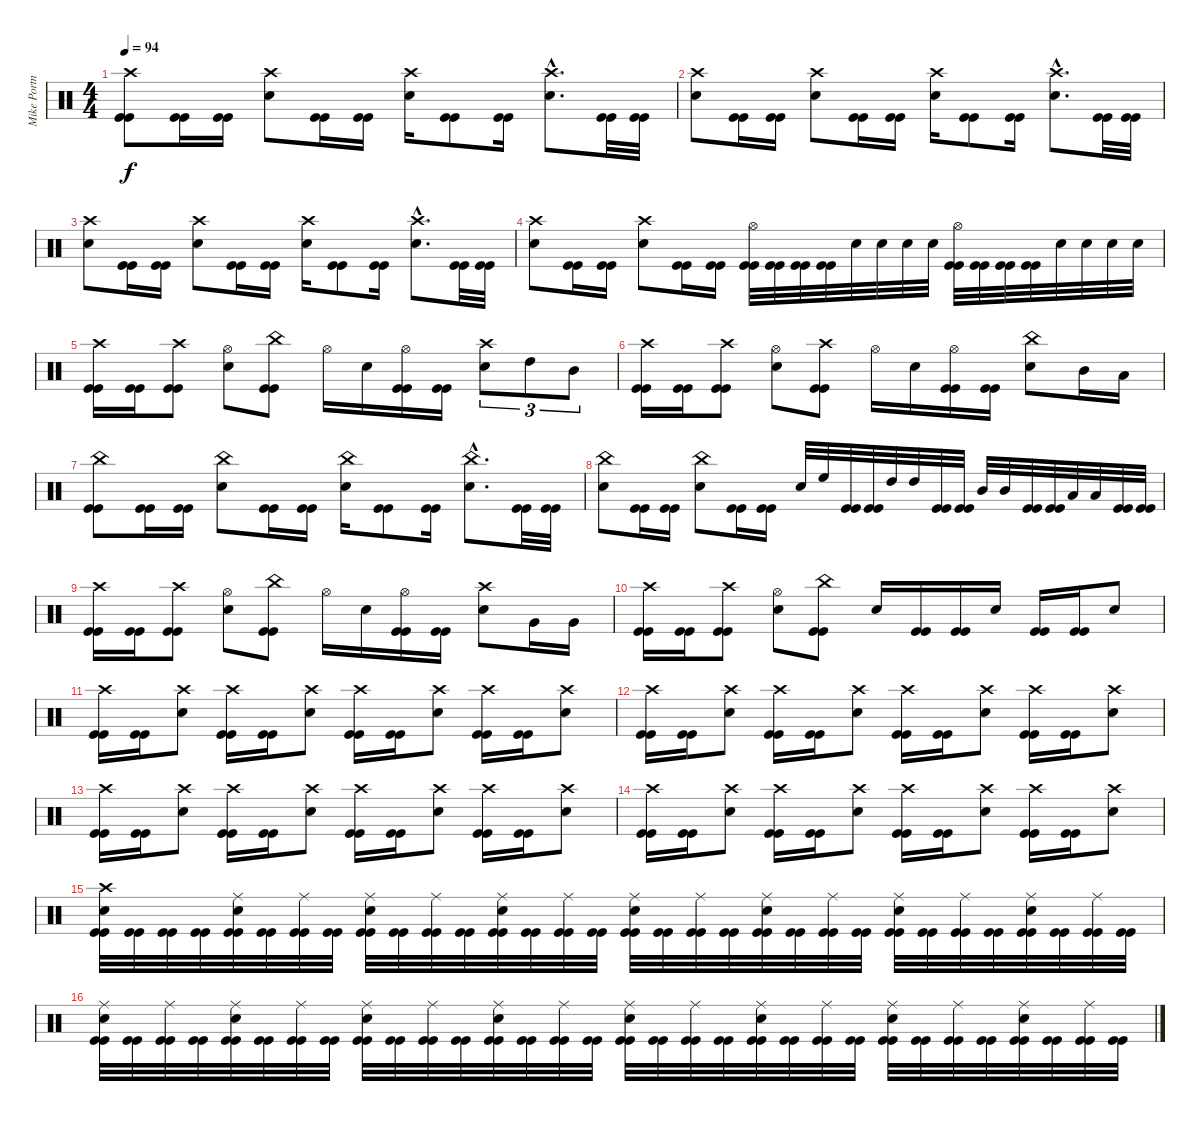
\track ("Mike Portnoy - Drum" "Mike Portn") {instrument percussion}
\staff {score}
\articulation defaults
\ts (4 4)
\tempo 94
\clef neutral
\ks c
("Crash high (hit)" "Kick (hit)" "Kick (hit)").8{dy f} ("Kick (hit)" "Kick (hit)").16 ("Kick (hit)" "Kick (hit)").16 ("Crash high (hit)" "Snare (hit) 2").8 ("Kick (hit)" "Kick (hit)").16 ("Kick (hit)" "Kick (hit)").16 ("Crash high (hit)" "Snare (hit) 2").16 ("Kick (hit)" "Kick (hit)").8 ("Kick (hit)" "Kick (hit)").16 ("Crash high (hit)"{hac} "Snare (hit) 2"{hac}).8{d} ("Kick (hit)" "Kick (hit)").32 ("Kick (hit)" "Kick (hit)").32 |
("Crash high (hit)" "Snare (hit) 2").8 ("Kick (hit)" "Kick (hit)").16 ("Kick (hit)" "Kick (hit)").16 ("Crash high (hit)" "Snare (hit) 2").8 ("Kick (hit)" "Kick (hit)").16 ("Kick (hit)" "Kick (hit)").16 ("Crash high (hit)" "Snare (hit) 2").16 ("Kick (hit)" "Kick (hit)").8 ("Kick (hit)" "Kick (hit)").16 ("Crash high (hit)"{hac} "Snare (hit) 2"{hac}).8{d} ("Kick (hit)" "Kick (hit)").32 ("Kick (hit)" "Kick (hit)").32 |
("Crash high (hit)" "Snare (hit) 2").8 ("Kick (hit)" "Kick (hit)").16 ("Kick (hit)" "Kick (hit)").16 ("Crash high (hit)" "Snare (hit) 2").8 ("Kick (hit)" "Kick (hit)").16 ("Kick (hit)" "Kick (hit)").16 ("Crash high (hit)" "Snare (hit) 2").16 ("Kick (hit)" "Kick (hit)").8 ("Kick (hit)" "Kick (hit)").16 ("Crash high (hit)"{hac} "Snare (hit) 2"{hac}).8{d} ("Kick (hit)" "Kick (hit)").32 ("Kick (hit)" "Kick (hit)").32 |
("Crash high (hit)" "Snare (hit) 2").8 ("Kick (hit)" "Kick (hit)").16 ("Kick (hit)" "Kick (hit)").16 ("Crash high (hit)" "Snare (hit) 2").8 ("Kick (hit)" "Kick (hit)").16 ("Kick (hit)" "Kick (hit)").16 ("Hi-Hat (open)" "Kick (hit)" "Kick (hit)").32 ("Kick (hit)" "Kick (hit)").32 ("Kick (hit)" "Kick (hit)").32 ("Kick (hit)" "Kick (hit)").32 "Snare (hit) 2".32 "Snare (hit) 2".32 "Snare (hit) 2".32 "Snare (hit) 2".32 ("Hi-Hat (open)" "Kick (hit)" "Kick (hit)").32 ("Kick (hit)" "Kick (hit)").32 ("Kick (hit)" "Kick (hit)").32 ("Kick (hit)" "Kick (hit)").32 "Snare (hit) 2".32 "Snare (hit) 2".32 "Snare (hit) 2".32 "Snare (hit) 2".32 |
("Crash high (hit)" "Kick (hit)" "Kick (hit)").16 ("Kick (hit)" "Kick (hit)").16 ("Crash high (hit)" "Kick (hit)" "Kick (hit)").8 ("Hi-Hat (open)" "Snare (hit) 2").8 ("China (hit)" "Kick (hit)" "Kick (hit)").8 "Hi-Hat (open)".16 "Snare (hit) 2".16 ("Hi-Hat (open)" "Kick (hit)" "Kick (hit)").16 ("Kick (hit)" "Kick (hit)").16 ("Crash high (hit)" "Snare (hit) 2").8{tu (3 2)} "High Tom (hit)".8{tu (3 2)} "Mid Tom (hit)".8{tu (3 2)} |
("Crash high (hit)" "Kick (hit)" "Kick (hit)").16 ("Kick (hit)" "Kick (hit)").16 ("Crash high (hit)" "Kick (hit)" "Kick (hit)").8 ("Hi-Hat (open)" "Snare (hit) 2").8 ("Crash high (hit)" "Kick (hit)" "Kick (hit)").8 "Hi-Hat (open)".16 "Snare (hit) 2".16 ("Hi-Hat (open)" "Kick (hit)" "Kick (hit)").16 ("Kick (hit)" "Kick (hit)").16 ("China (hit)" "Snare (hit) 2").8 "Mid Tom (hit)".16 "Low Tom (hit)".16 |
("China (hit)" "Kick (hit)" "Kick (hit)").8 ("Kick (hit)" "Kick (hit)").16 ("Kick (hit)" "Kick (hit)").16 ("China (hit)" "Snare (hit) 2").8 ("Kick (hit)" "Kick (hit)").16 ("Kick (hit)" "Kick (hit)").16 ("China (hit)" "Snare (hit) 2").16 ("Kick (hit)" "Kick (hit)").8 ("Kick (hit)" "Kick (hit)").16 ("China (hit)"{hac} "Snare (hit) 2"{hac}).8{d} ("Kick (hit)" "Kick (hit)").32 ("Kick (hit)" "Kick (hit)").32 |
("China (hit)" "Snare (hit) 2").8 ("Kick (hit)" "Kick (hit)").16 ("Kick (hit)" "Kick (hit)").16 ("China (hit)" "Snare (hit) 2").8 ("Kick (hit)" "Kick (hit)").16 ("Kick (hit)" "Kick (hit)").16 "Snare (hit) 2".32 "High Floor Tom (hit)".32 ("Kick (hit)" "Kick (hit)").32 ("Kick (hit)" "Kick (hit)").32 "High Tom (hit)".32 "High Tom (hit)".32 ("Kick (hit)" "Kick (hit)").32 ("Kick (hit)" "Kick (hit)").32 "Mid Tom (hit)".32 "Mid Tom (hit)".32 ("Kick (hit)" "Kick (hit)").32 ("Kick (hit)" "Kick (hit)").32 "Low Tom (hit)".32 "Low Tom (hit)".32 ("Kick (hit)" "Kick (hit)").32 ("Kick (hit)" "Kick (hit)").32 |
("Crash high (hit)" "Kick (hit)" "Kick (hit)").16 ("Kick (hit)" "Kick (hit)").16 ("Crash high (hit)" "Kick (hit)" "Kick (hit)").8 ("Hi-Hat (open)" "Snare (hit) 2").8 ("China (hit)" "Kick (hit)" "Kick (hit)").8 "Hi-Hat (open)".16 "Snare (hit) 2".16 ("Hi-Hat (open)" "Kick (hit)" "Kick (hit)").16 ("Kick (hit)" "Kick (hit)").16 ("Crash high (hit)" "Snare (hit) 2").8 "Very Low Tom (hit)".16 "Very Low Tom (hit)".16 |
("Crash high (hit)" "Kick (hit)" "Kick (hit)").16 ("Kick (hit)" "Kick (hit)").16 ("Crash high (hit)" "Kick (hit)" "Kick (hit)").8 ("Hi-Hat (open)" "Snare (hit) 2").8 ("China (hit)" "Kick (hit)" "Kick (hit)").8 "Snare (hit) 2".16 ("Kick (hit)" "Kick (hit)").16 ("Kick (hit)" "Kick (hit)").16 "Snare (hit) 2".16 ("Kick (hit)" "Kick (hit)").16 ("Kick (hit)" "Kick (hit)").16 "Snare (hit) 2".8 |
("Crash high (hit)" "Kick (hit)" "Kick (hit)").16 ("Kick (hit)" "Kick (hit)").16 ("Crash high (hit)" "Snare (hit) 2").8 ("Crash high (hit)" "Kick (hit)" "Kick (hit)").16 ("Kick (hit)" "Kick (hit)").16 ("Crash high (hit)" "Snare (hit) 2").8 ("Crash high (hit)" "Kick (hit)" "Kick (hit)").16 ("Kick (hit)" "Kick (hit)").16 ("Crash high (hit)" "Snare (hit) 2").8 ("Crash high (hit)" "Kick (hit)" "Kick (hit)").16 ("Kick (hit)" "Kick (hit)").16 ("Crash high (hit)" "Snare (hit) 2").8 |
("Crash high (hit)" "Kick (hit)" "Kick (hit)").16 ("Kick (hit)" "Kick (hit)").16 ("Crash high (hit)" "Snare (hit) 2").8 ("Crash high (hit)" "Kick (hit)" "Kick (hit)").16 ("Kick (hit)" "Kick (hit)").16 ("Crash high (hit)" "Snare (hit) 2").8 ("Crash high (hit)" "Kick (hit)" "Kick (hit)").16 ("Kick (hit)" "Kick (hit)").16 ("Crash high (hit)" "Snare (hit) 2").8 ("Crash high (hit)" "Kick (hit)" "Kick (hit)").16 ("Kick (hit)" "Kick (hit)").16 ("Crash high (hit)" "Snare (hit) 2").8 |
("Crash high (hit)" "Kick (hit)" "Kick (hit)").16 ("Kick (hit)" "Kick (hit)").16 ("Crash high (hit)" "Snare (hit) 2").8 ("Crash high (hit)" "Kick (hit)" "Kick (hit)").16 ("Kick (hit)" "Kick (hit)").16 ("Crash high (hit)" "Snare (hit) 2").8 ("Crash high (hit)" "Kick (hit)" "Kick (hit)").16 ("Kick (hit)" "Kick (hit)").16 ("Crash high (hit)" "Snare (hit) 2").8 ("Crash high (hit)" "Kick (hit)" "Kick (hit)").16 ("Kick (hit)" "Kick (hit)").16 ("Crash high (hit)" "Snare (hit) 2").8 |
("Crash high (hit)" "Kick (hit)" "Kick (hit)").16 ("Kick (hit)" "Kick (hit)").16 ("Crash high (hit)" "Snare (hit) 2").8 ("Crash high (hit)" "Kick (hit)" "Kick (hit)").16 ("Kick (hit)" "Kick (hit)").16 ("Crash high (hit)" "Snare (hit) 2").8 ("Crash high (hit)" "Kick (hit)" "Kick (hit)").16 ("Kick (hit)" "Kick (hit)").16 ("Crash high (hit)" "Snare (hit) 2").8 ("Crash high (hit)" "Kick (hit)" "Kick (hit)").16 ("Kick (hit)" "Kick (hit)").16 ("Crash high (hit)" "Snare (hit) 2").8 |
("Crash high (hit)" "Snare (hit) 2" "Kick (hit)" "Kick (hit)").32 ("Kick (hit)" "Kick (hit)").32 ("Kick (hit)" "Kick (hit)").32 ("Kick (hit)" "Kick (hit)").32 ("Ride (middle)" "Snare (hit) 2" "Kick (hit)" "Kick (hit)").32 ("Kick (hit)" "Kick (hit)").32 ("Ride (middle)" "Kick (hit)" "Kick (hit)").32 ("Kick (hit)" "Kick (hit)").32 ("Ride (middle)" "Snare (hit) 2" "Kick (hit)" "Kick (hit)").32 ("Kick (hit)" "Kick (hit)").32 ("Ride (middle)" "Kick (hit)" "Kick (hit)").32 ("Kick (hit)" "Kick (hit)").32 ("Ride (middle)" "Snare (hit) 2" "Kick (hit)" "Kick (hit)").32 ("Kick (hit)" "Kick (hit)").32 ("Ride (middle)" "Kick (hit)" "Kick (hit)").32 ("Kick (hit)" "Kick (hit)").32 ("Ride (middle)" "Snare (hit) 2" "Kick (hit)" "Kick (hit)").32 ("Kick (hit)" "Kick (hit)").32 ("Ride (middle)" "Kick (hit)" "Kick (hit)").32 ("Kick (hit)" "Kick (hit)").32 ("Ride (middle)" "Snare (hit) 2" "Kick (hit)" "Kick (hit)").32 ("Kick (hit)" "Kick (hit)").32 ("Ride (middle)" "Kick (hit)" "Kick (hit)").32 ("Kick (hit)" "Kick (hit)").32 ("Ride (middle)" "Snare (hit) 2" "Kick (hit)" "Kick (hit)").32 ("Kick (hit)" "Kick (hit)").32 ("Ride (middle)" "Kick (hit)" "Kick (hit)").32 ("Kick (hit)" "Kick (hit)").32 ("Ride (middle)" "Snare (hit) 2" "Kick (hit)" "Kick (hit)").32 ("Kick (hit)" "Kick (hit)").32 ("Ride (middle)" "Kick (hit)" "Kick (hit)").32 ("Kick (hit)" "Kick (hit)").32 |
("Ride (middle)" "Snare (hit) 2" "Kick (hit)" "Kick (hit)").32 ("Kick (hit)" "Kick (hit)").32 ("Ride (middle)" "Kick (hit)" "Kick (hit)").32 ("Kick (hit)" "Kick (hit)").32 ("Ride (middle)" "Snare (hit) 2" "Kick (hit)" "Kick (hit)").32 ("Kick (hit)" "Kick (hit)").32 ("Ride (middle)" "Kick (hit)" "Kick (hit)").32 ("Kick (hit)" "Kick (hit)").32 ("Ride (middle)" "Snare (hit) 2" "Kick (hit)" "Kick (hit)").32 ("Kick (hit)" "Kick (hit)").32 ("Ride (middle)" "Kick (hit)" "Kick (hit)").32 ("Kick (hit)" "Kick (hit)").32 ("Ride (middle)" "Snare (hit) 2" "Kick (hit)" "Kick (hit)").32 ("Kick (hit)" "Kick (hit)").32 ("Ride (middle)" "Kick (hit)" "Kick (hit)").32 ("Kick (hit)" "Kick (hit)").32 ("Ride (middle)" "Snare (hit) 2" "Kick (hit)" "Kick (hit)").32 ("Kick (hit)" "Kick (hit)").32 ("Ride (middle)" "Kick (hit)" "Kick (hit)").32 ("Kick (hit)" "Kick (hit)").32 ("Ride (middle)" "Snare (hit) 2" "Kick (hit)" "Kick (hit)").32 ("Kick (hit)" "Kick (hit)").32 ("Ride (middle)" "Kick (hit)" "Kick (hit)").32 ("Kick (hit)" "Kick (hit)").32 ("Ride (middle)" "Snare (hit) 2" "Kick (hit)" "Kick (hit)").32 ("Kick (hit)" "Kick (hit)").32 ("Ride (middle)" "Kick (hit)" "Kick (hit)").32 ("Kick (hit)" "Kick (hit)").32 ("Ride (middle)" "Snare (hit) 2" "Kick (hit)" "Kick (hit)").32 ("Kick (hit)" "Kick (hit)").32 ("Ride (middle)" "Kick (hit)" "Kick (hit)").32 ("Kick (hit)" "Kick (hit)").32
